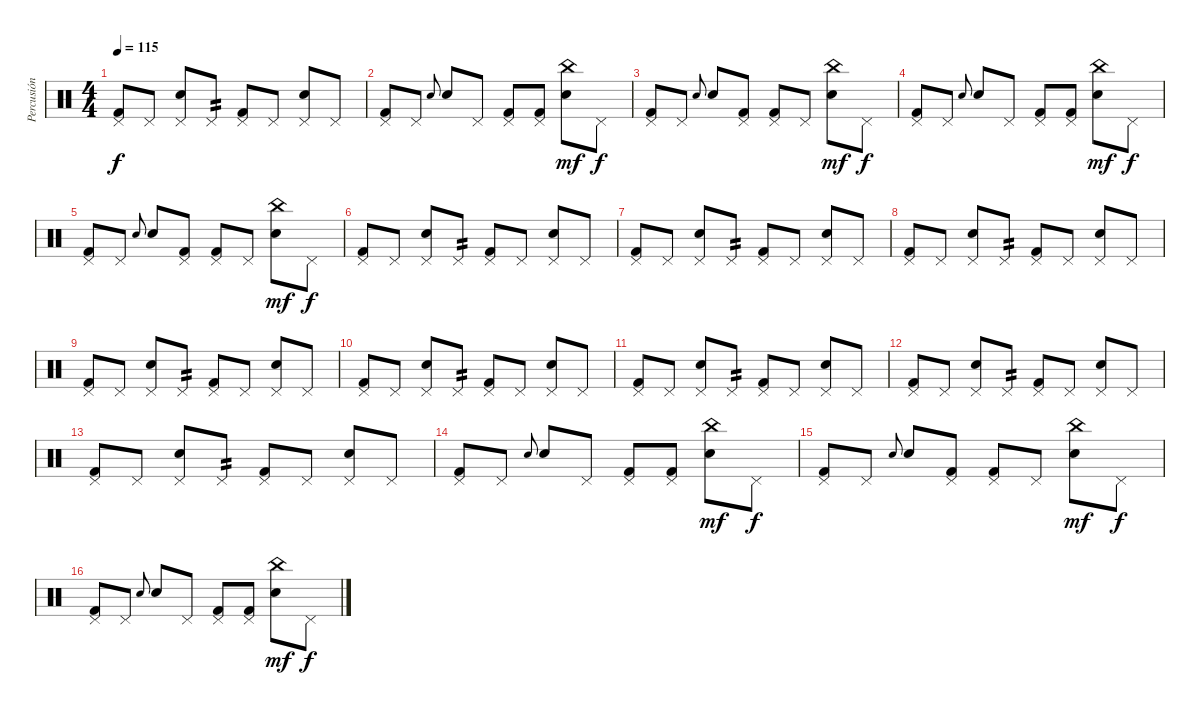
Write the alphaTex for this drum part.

\track ("Percusión" "Percusión") {instrument percussion}
\staff {score}
\articulation defaults
\ts (4 4)
\tempo 115
\clef neutral
\ks c
("Pedal Hi-Hat (hit)" "Kick (hit) 2").8{dy f} "Pedal Hi-Hat (hit)".8 ("Pedal Hi-Hat (hit)" "Electric Snare (hit)").8 "Pedal Hi-Hat (hit)".8{tp 2} ("Pedal Hi-Hat (hit)" "Kick (hit) 2").8 "Pedal Hi-Hat (hit)".8 ("Pedal Hi-Hat (hit)" "Electric Snare (hit)").8 "Pedal Hi-Hat (hit)".8 |
("Pedal Hi-Hat (hit)" "Kick (hit) 2").8 "Pedal Hi-Hat (hit)".8 "Electric Snare (hit)".8{gr onbeat} "Electric Snare (hit)".8 "Pedal Hi-Hat (hit)".8 ("Pedal Hi-Hat (hit)" "Kick (hit) 2").8 ("Pedal Hi-Hat (hit)" "Kick (hit) 2").8 ("China (hit)" "Electric Snare (hit)").8{dy mf} "Pedal Hi-Hat (hit)".8{dy f} |
("Pedal Hi-Hat (hit)" "Kick (hit) 2").8 "Pedal Hi-Hat (hit)".8 "Electric Snare (hit)".8{gr onbeat} "Electric Snare (hit)".8 ("Pedal Hi-Hat (hit)" "Kick (hit) 2").8 ("Pedal Hi-Hat (hit)" "Kick (hit) 2").8 "Pedal Hi-Hat (hit)".8 ("China (hit)" "Electric Snare (hit)").8{dy mf} "Pedal Hi-Hat (hit)".8{dy f} |
("Pedal Hi-Hat (hit)" "Kick (hit) 2").8 "Pedal Hi-Hat (hit)".8 "Electric Snare (hit)".8{gr onbeat} "Electric Snare (hit)".8 "Pedal Hi-Hat (hit)".8 ("Pedal Hi-Hat (hit)" "Kick (hit) 2").8 ("Pedal Hi-Hat (hit)" "Kick (hit) 2").8 ("China (hit)" "Electric Snare (hit)").8{dy mf} "Pedal Hi-Hat (hit)".8{dy f} |
("Pedal Hi-Hat (hit)" "Kick (hit) 2").8 "Pedal Hi-Hat (hit)".8 "Electric Snare (hit)".8{gr onbeat} "Electric Snare (hit)".8 ("Pedal Hi-Hat (hit)" "Kick (hit) 2").8 ("Pedal Hi-Hat (hit)" "Kick (hit) 2").8 "Pedal Hi-Hat (hit)".8 ("China (hit)" "Electric Snare (hit)").8{dy mf} "Pedal Hi-Hat (hit)".8{dy f} |
("Pedal Hi-Hat (hit)" "Kick (hit) 2").8 "Pedal Hi-Hat (hit)".8 ("Pedal Hi-Hat (hit)" "Electric Snare (hit)").8 "Pedal Hi-Hat (hit)".8{tp 2} ("Pedal Hi-Hat (hit)" "Kick (hit) 2").8 "Pedal Hi-Hat (hit)".8 ("Pedal Hi-Hat (hit)" "Electric Snare (hit)").8 "Pedal Hi-Hat (hit)".8 |
("Pedal Hi-Hat (hit)" "Kick (hit) 2").8 "Pedal Hi-Hat (hit)".8 ("Pedal Hi-Hat (hit)" "Electric Snare (hit)").8 "Pedal Hi-Hat (hit)".8{tp 2} ("Pedal Hi-Hat (hit)" "Kick (hit) 2").8 "Pedal Hi-Hat (hit)".8 ("Pedal Hi-Hat (hit)" "Electric Snare (hit)").8 "Pedal Hi-Hat (hit)".8 |
("Pedal Hi-Hat (hit)" "Kick (hit) 2").8 "Pedal Hi-Hat (hit)".8 ("Pedal Hi-Hat (hit)" "Electric Snare (hit)").8 "Pedal Hi-Hat (hit)".8{tp 2} ("Pedal Hi-Hat (hit)" "Kick (hit) 2").8 "Pedal Hi-Hat (hit)".8 ("Pedal Hi-Hat (hit)" "Electric Snare (hit)").8 "Pedal Hi-Hat (hit)".8 |
("Pedal Hi-Hat (hit)" "Kick (hit) 2").8 "Pedal Hi-Hat (hit)".8 ("Pedal Hi-Hat (hit)" "Electric Snare (hit)").8 "Pedal Hi-Hat (hit)".8{tp 2} ("Pedal Hi-Hat (hit)" "Kick (hit) 2").8 "Pedal Hi-Hat (hit)".8 ("Pedal Hi-Hat (hit)" "Electric Snare (hit)").8 "Pedal Hi-Hat (hit)".8 |
("Pedal Hi-Hat (hit)" "Kick (hit) 2").8 "Pedal Hi-Hat (hit)".8 ("Pedal Hi-Hat (hit)" "Electric Snare (hit)").8 "Pedal Hi-Hat (hit)".8{tp 2} ("Pedal Hi-Hat (hit)" "Kick (hit) 2").8 "Pedal Hi-Hat (hit)".8 ("Pedal Hi-Hat (hit)" "Electric Snare (hit)").8 "Pedal Hi-Hat (hit)".8 |
("Pedal Hi-Hat (hit)" "Kick (hit) 2").8 "Pedal Hi-Hat (hit)".8 ("Pedal Hi-Hat (hit)" "Electric Snare (hit)").8 "Pedal Hi-Hat (hit)".8{tp 2} ("Pedal Hi-Hat (hit)" "Kick (hit) 2").8 "Pedal Hi-Hat (hit)".8 ("Pedal Hi-Hat (hit)" "Electric Snare (hit)").8 "Pedal Hi-Hat (hit)".8 |
("Pedal Hi-Hat (hit)" "Kick (hit) 2").8 "Pedal Hi-Hat (hit)".8 ("Pedal Hi-Hat (hit)" "Electric Snare (hit)").8 "Pedal Hi-Hat (hit)".8{tp 2} ("Pedal Hi-Hat (hit)" "Kick (hit) 2").8 "Pedal Hi-Hat (hit)".8 ("Pedal Hi-Hat (hit)" "Electric Snare (hit)").8 "Pedal Hi-Hat (hit)".8 |
("Pedal Hi-Hat (hit)" "Kick (hit) 2").8 "Pedal Hi-Hat (hit)".8 ("Pedal Hi-Hat (hit)" "Electric Snare (hit)").8 "Pedal Hi-Hat (hit)".8{tp 2} ("Pedal Hi-Hat (hit)" "Kick (hit) 2").8 "Pedal Hi-Hat (hit)".8 ("Pedal Hi-Hat (hit)" "Electric Snare (hit)").8 "Pedal Hi-Hat (hit)".8 |
("Pedal Hi-Hat (hit)" "Kick (hit) 2").8 "Pedal Hi-Hat (hit)".8 "Electric Snare (hit)".8{gr onbeat} "Electric Snare (hit)".8 "Pedal Hi-Hat (hit)".8 ("Pedal Hi-Hat (hit)" "Kick (hit) 2").8 ("Pedal Hi-Hat (hit)" "Kick (hit) 2").8 ("China (hit)" "Electric Snare (hit)").8{dy mf} "Pedal Hi-Hat (hit)".8{dy f} |
("Pedal Hi-Hat (hit)" "Kick (hit) 2").8 "Pedal Hi-Hat (hit)".8 "Electric Snare (hit)".8{gr onbeat} "Electric Snare (hit)".8 ("Pedal Hi-Hat (hit)" "Kick (hit) 2").8 ("Pedal Hi-Hat (hit)" "Kick (hit) 2").8 "Pedal Hi-Hat (hit)".8 ("China (hit)" "Electric Snare (hit)").8{dy mf} "Pedal Hi-Hat (hit)".8{dy f} |
("Pedal Hi-Hat (hit)" "Kick (hit) 2").8 "Pedal Hi-Hat (hit)".8 "Electric Snare (hit)".8{gr onbeat} "Electric Snare (hit)".8 "Pedal Hi-Hat (hit)".8 ("Pedal Hi-Hat (hit)" "Kick (hit) 2").8 ("Pedal Hi-Hat (hit)" "Kick (hit) 2").8 ("China (hit)" "Electric Snare (hit)").8{dy mf} "Pedal Hi-Hat (hit)".8{dy f}
